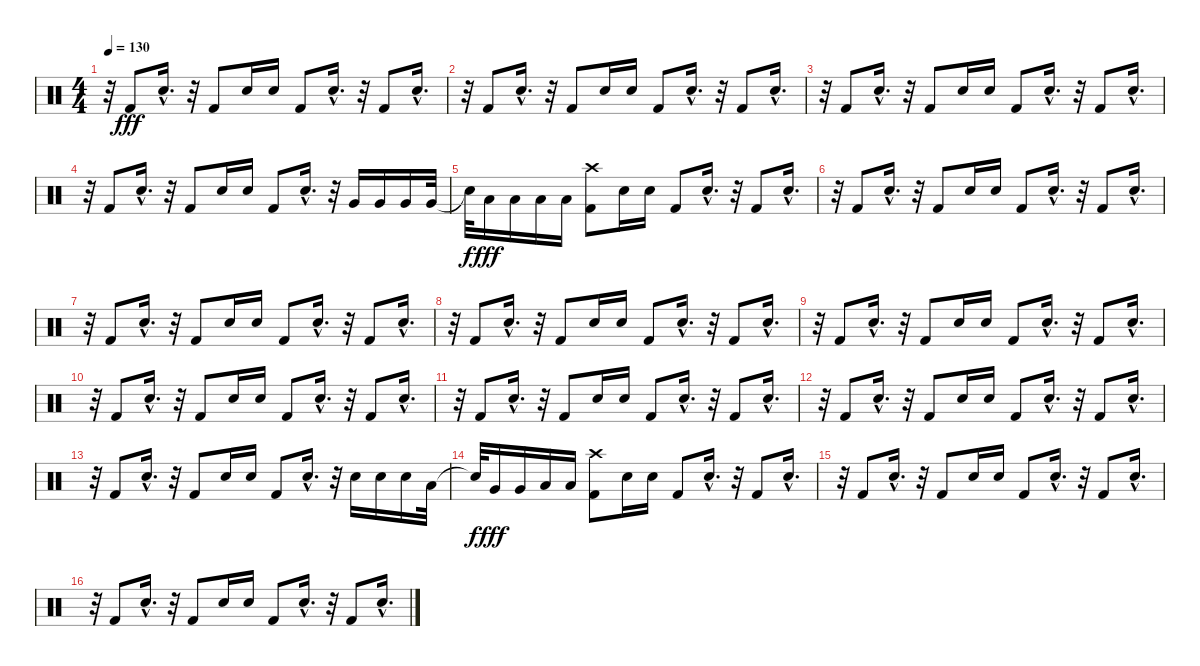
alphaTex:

\track "" {instrument percussion}
\staff {score}
\articulation defaults
\ts (4 4)
\tempo 130
\clef neutral
\ks c
r.32{dy fff} "Kick (hit) 2".8 "Electric Snare (hit)"{hac}.16{d} r.32 "Kick (hit) 2".8 "Electric Snare (hit)".16 "Electric Snare (hit)".16 "Kick (hit) 2".8 "Electric Snare (hit)"{hac}.16{d} r.32 "Kick (hit) 2".8 "Electric Snare (hit)"{hac}.16{d} |
r.32 "Kick (hit) 2".8 "Electric Snare (hit)"{hac}.16{d} r.32 "Kick (hit) 2".8 "Electric Snare (hit)".16 "Electric Snare (hit)".16 "Kick (hit) 2".8 "Electric Snare (hit)"{hac}.16{d} r.32 "Kick (hit) 2".8 "Electric Snare (hit)"{hac}.16{d} |
r.32 "Kick (hit) 2".8 "Electric Snare (hit)"{hac}.16{d} r.32 "Kick (hit) 2".8 "Electric Snare (hit)".16 "Electric Snare (hit)".16 "Kick (hit) 2".8 "Electric Snare (hit)"{hac}.16{d} r.32 "Kick (hit) 2".8 "Electric Snare (hit)"{hac}.16{d} |
r.32 "Kick (hit) 2".8 "Electric Snare (hit)"{hac}.16{d} r.32 "Kick (hit) 2".8 "Electric Snare (hit)".16 "Electric Snare (hit)".16 "Kick (hit) 2".8 "Electric Snare (hit)"{hac}.16{d} r.32 "Very Low Tom (hit)".16 "Very Low Tom (hit)".16 "Very Low Tom (hit)".16 "Very Low Tom (hit)".32 |
"Snare (hit)"{t}.32{dy f} "Low Floor Tom (hit)".16{dy fff} "Low Floor Tom (hit)".16 "Low Floor Tom (hit)".16 "Low Floor Tom (hit)".16 ("Crash high (hit)" "Kick (hit) 2").8 "Electric Snare (hit)".16 "Electric Snare (hit)".16 "Kick (hit) 2".8 "Electric Snare (hit)"{hac}.16{d} r.32 "Kick (hit) 2".8 "Electric Snare (hit)"{hac}.16{d} |
r.32 "Kick (hit) 2".8 "Electric Snare (hit)"{hac}.16{d} r.32 "Kick (hit) 2".8 "Electric Snare (hit)".16 "Electric Snare (hit)".16 "Kick (hit) 2".8 "Electric Snare (hit)"{hac}.16{d} r.32 "Kick (hit) 2".8 "Electric Snare (hit)"{hac}.16{d} |
r.32 "Kick (hit) 2".8 "Electric Snare (hit)"{hac}.16{d} r.32 "Kick (hit) 2".8 "Electric Snare (hit)".16 "Electric Snare (hit)".16 "Kick (hit) 2".8 "Electric Snare (hit)"{hac}.16{d} r.32 "Kick (hit) 2".8 "Electric Snare (hit)"{hac}.16{d} |
r.32 "Kick (hit) 2".8 "Electric Snare (hit)"{hac}.16{d} r.32 "Kick (hit) 2".8 "Electric Snare (hit)".16 "Electric Snare (hit)".16 "Kick (hit) 2".8 "Electric Snare (hit)"{hac}.16{d} r.32 "Kick (hit) 2".8 "Electric Snare (hit)"{hac}.16{d} |
r.32 "Kick (hit) 2".8 "Electric Snare (hit)"{hac}.16{d} r.32 "Kick (hit) 2".8 "Electric Snare (hit)".16 "Electric Snare (hit)".16 "Kick (hit) 2".8 "Electric Snare (hit)"{hac}.16{d} r.32 "Kick (hit) 2".8 "Electric Snare (hit)"{hac}.16{d} |
r.32 "Kick (hit) 2".8 "Electric Snare (hit)"{hac}.16{d} r.32 "Kick (hit) 2".8 "Electric Snare (hit)".16 "Electric Snare (hit)".16 "Kick (hit) 2".8 "Electric Snare (hit)"{hac}.16{d} r.32 "Kick (hit) 2".8 "Electric Snare (hit)"{hac}.16{d} |
r.32 "Kick (hit) 2".8 "Electric Snare (hit)"{hac}.16{d} r.32 "Kick (hit) 2".8 "Electric Snare (hit)".16 "Electric Snare (hit)".16 "Kick (hit) 2".8 "Electric Snare (hit)"{hac}.16{d} r.32 "Kick (hit) 2".8 "Electric Snare (hit)"{hac}.16{d} |
r.32 "Kick (hit) 2".8 "Electric Snare (hit)"{hac}.16{d} r.32 "Kick (hit) 2".8 "Electric Snare (hit)".16 "Electric Snare (hit)".16 "Kick (hit) 2".8 "Electric Snare (hit)"{hac}.16{d} r.32 "Kick (hit) 2".8 "Electric Snare (hit)"{hac}.16{d} |
r.32 "Kick (hit) 2".8 "Electric Snare (hit)"{hac}.16{d} r.32 "Kick (hit) 2".8 "Electric Snare (hit)".16 "Electric Snare (hit)".16 "Kick (hit) 2".8 "Electric Snare (hit)"{hac}.16{d} r.32 "Electric Snare (hit)".16 "Electric Snare (hit)".16 "Electric Snare (hit)".16 "Low Tom (hit)".32 |
"Snare (hit)"{t}.32{dy f} "Very Low Tom (hit)".16{dy fff} "Very Low Tom (hit)".16 "Low Floor Tom (hit)".16 "Low Floor Tom (hit)".16 ("Crash high (hit)" "Kick (hit) 2").8 "Electric Snare (hit)".16 "Electric Snare (hit)".16 "Kick (hit) 2".8 "Electric Snare (hit)"{hac}.16{d} r.32 "Kick (hit) 2".8 "Electric Snare (hit)"{hac}.16{d} |
r.32 "Kick (hit) 2".8 "Electric Snare (hit)"{hac}.16{d} r.32 "Kick (hit) 2".8 "Electric Snare (hit)".16 "Electric Snare (hit)".16 "Kick (hit) 2".8 "Electric Snare (hit)"{hac}.16{d} r.32 "Kick (hit) 2".8 "Electric Snare (hit)"{hac}.16{d} |
r.32 "Kick (hit) 2".8 "Electric Snare (hit)"{hac}.16{d} r.32 "Kick (hit) 2".8 "Electric Snare (hit)".16 "Electric Snare (hit)".16 "Kick (hit) 2".8 "Electric Snare (hit)"{hac}.16{d} r.32 "Kick (hit) 2".8 "Electric Snare (hit)"{hac}.16{d}
